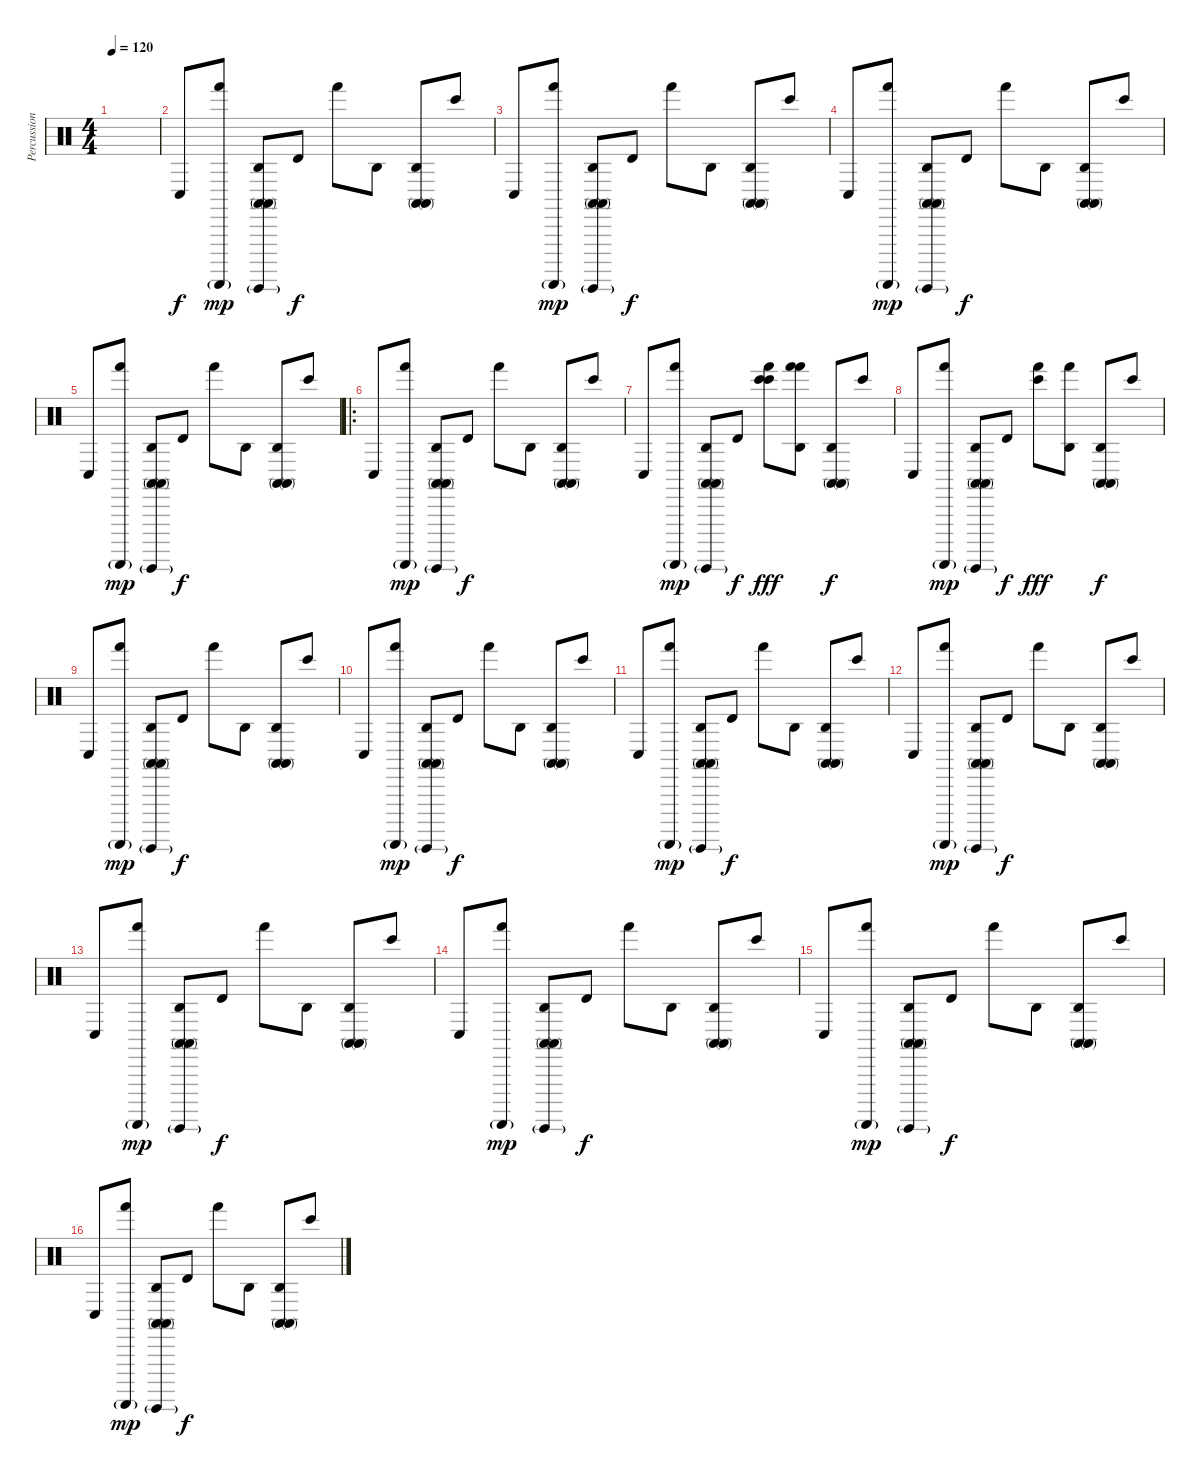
\track ("Percussions" "Percussion") {instrument percussion}
\staff {score}
\articulation defaults
\ts (4 4)
\tempo 120
\clef neutral
\ks c
|
"Conga low (hit)".8 ("Hand (hit)" "Guiro (scrap-return)"{g}).8{dy mp} ("Conga high (mute)" "Agogo high (hit)" "Conga high (mute)" "Guiro (hit)"{g}).8 "Timbale high (hit)".8{dy f} "Hand (hit)".8 "Agogo high (hit)".8 ("Agogo high (hit)" "Conga high (mute)" "Conga high (mute)").8 "Bongo High (hit)".8 |
"Conga low (hit)".8 ("Hand (hit)" "Guiro (scrap-return)"{g}).8{dy mp} ("Conga high (mute)" "Agogo high (hit)" "Conga high (mute)" "Guiro (hit)"{g}).8 "Timbale high (hit)".8{dy f} "Hand (hit)".8 "Agogo high (hit)".8 ("Agogo high (hit)" "Conga high (mute)" "Conga high (mute)").8 "Bongo High (hit)".8 |
"Conga low (hit)".8 ("Hand (hit)" "Guiro (scrap-return)"{g}).8{dy mp} ("Conga high (mute)" "Agogo high (hit)" "Conga high (mute)" "Guiro (hit)"{g}).8 "Timbale high (hit)".8{dy f} "Hand (hit)".8 "Agogo high (hit)".8 ("Agogo high (hit)" "Conga high (mute)" "Conga high (mute)").8 "Bongo High (hit)".8 |
"Conga low (hit)".8 ("Hand (hit)" "Guiro (scrap-return)"{g}).8{dy mp} ("Conga high (mute)" "Agogo high (hit)" "Conga high (mute)" "Guiro (hit)"{g}).8 "Timbale high (hit)".8{dy f} "Hand (hit)".8 "Agogo high (hit)".8 ("Agogo high (hit)" "Conga high (mute)" "Conga high (mute)").8 "Bongo High (hit)".8 |
\ro "Conga low (hit)".8
("Hand (hit)" "Guiro (scrap-return)"{g}).8{dy mp} ("Conga high (mute)" "Agogo high (hit)" "Conga high (mute)" "Guiro (hit)"{g}).8 "Timbale high (hit)".8{dy f} "Hand (hit)".8 "Agogo high (hit)".8 ("Agogo high (hit)" "Conga high (mute)" "Conga high (mute)").8 "Bongo High (hit)".8 |
"Conga low (hit)".8 ("Hand (hit)" "Guiro (scrap-return)"{g}).8{dy mp} ("Conga high (mute)" "Agogo high (hit)" "Conga high (mute)" "Guiro (hit)"{g}).8 "Timbale high (hit)".8{dy f} ("Hand (hit)" "Bongo High (hit)" "Bongo High (hit)").8{dy fff} ("Agogo high (hit)" "Hand (hit)" "Hand (hit)").8 ("Agogo high (hit)" "Conga high (mute)" "Conga high (mute)").8{dy f} "Bongo High (hit)".8 |
"Conga low (hit)".8 ("Hand (hit)" "Guiro (scrap-return)"{g}).8{dy mp} ("Conga high (mute)" "Agogo high (hit)" "Conga high (mute)" "Guiro (hit)"{g}).8 "Timbale high (hit)".8{dy f} ("Hand (hit)" "Bongo High (hit)").8{dy fff} ("Agogo high (hit)" "Hand (hit)").8 ("Agogo high (hit)" "Conga high (mute)" "Conga high (mute)").8{dy f} "Bongo High (hit)".8 |
"Conga low (hit)".8 ("Hand (hit)" "Guiro (scrap-return)"{g}).8{dy mp} ("Conga high (mute)" "Agogo high (hit)" "Conga high (mute)" "Guiro (hit)"{g}).8 "Timbale high (hit)".8{dy f} "Hand (hit)".8 "Agogo high (hit)".8 ("Agogo high (hit)" "Conga high (mute)" "Conga high (mute)").8 "Bongo High (hit)".8 |
"Conga low (hit)".8 ("Hand (hit)" "Guiro (scrap-return)"{g}).8{dy mp} ("Conga high (mute)" "Agogo high (hit)" "Conga high (mute)" "Guiro (hit)"{g}).8 "Timbale high (hit)".8{dy f} "Hand (hit)".8 "Agogo high (hit)".8 ("Agogo high (hit)" "Conga high (mute)" "Conga high (mute)").8 "Bongo High (hit)".8 |
"Conga low (hit)".8 ("Hand (hit)" "Guiro (scrap-return)"{g}).8{dy mp} ("Conga high (mute)" "Agogo high (hit)" "Conga high (mute)" "Guiro (hit)"{g}).8 "Timbale high (hit)".8{dy f} "Hand (hit)".8 "Agogo high (hit)".8 ("Agogo high (hit)" "Conga high (mute)" "Conga high (mute)").8 "Bongo High (hit)".8 |
"Conga low (hit)".8 ("Hand (hit)" "Guiro (scrap-return)"{g}).8{dy mp} ("Conga high (mute)" "Agogo high (hit)" "Conga high (mute)" "Guiro (hit)"{g}).8 "Timbale high (hit)".8{dy f} "Hand (hit)".8 "Agogo high (hit)".8 ("Agogo high (hit)" "Conga high (mute)" "Conga high (mute)").8 "Bongo High (hit)".8 |
"Conga low (hit)".8 ("Hand (hit)" "Guiro (scrap-return)"{g}).8{dy mp} ("Conga high (mute)" "Agogo high (hit)" "Conga high (mute)" "Guiro (hit)"{g}).8 "Timbale high (hit)".8{dy f} "Hand (hit)".8 "Agogo high (hit)".8 ("Agogo high (hit)" "Conga high (mute)" "Conga high (mute)").8 "Bongo High (hit)".8 |
"Conga low (hit)".8 ("Hand (hit)" "Guiro (scrap-return)"{g}).8{dy mp} ("Conga high (mute)" "Agogo high (hit)" "Conga high (mute)" "Guiro (hit)"{g}).8 "Timbale high (hit)".8{dy f} "Hand (hit)".8 "Agogo high (hit)".8 ("Agogo high (hit)" "Conga high (mute)" "Conga high (mute)").8 "Bongo High (hit)".8 |
"Conga low (hit)".8 ("Hand (hit)" "Guiro (scrap-return)"{g}).8{dy mp} ("Conga high (mute)" "Agogo high (hit)" "Conga high (mute)" "Guiro (hit)"{g}).8 "Timbale high (hit)".8{dy f} "Hand (hit)".8 "Agogo high (hit)".8 ("Agogo high (hit)" "Conga high (mute)" "Conga high (mute)").8 "Bongo High (hit)".8 |
"Conga low (hit)".8 ("Hand (hit)" "Guiro (scrap-return)"{g}).8{dy mp} ("Conga high (mute)" "Agogo high (hit)" "Conga high (mute)" "Guiro (hit)"{g}).8 "Timbale high (hit)".8{dy f} "Hand (hit)".8 "Agogo high (hit)".8 ("Agogo high (hit)" "Conga high (mute)" "Conga high (mute)").8 "Bongo High (hit)".8
